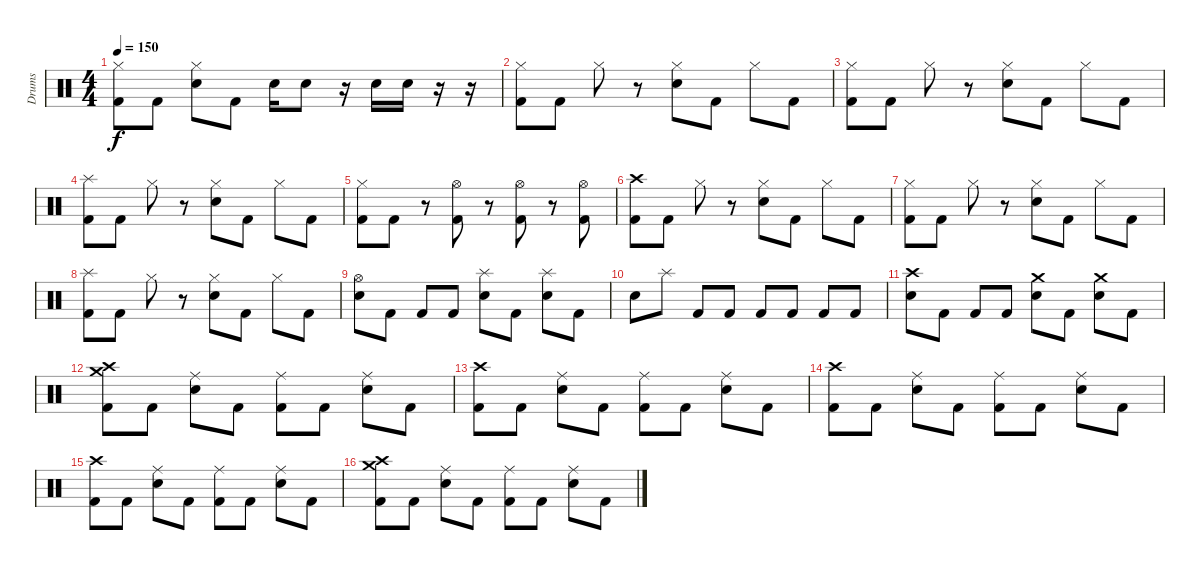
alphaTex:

\track ("Drums" "Drums") {instrument percussion}
\staff {score}
\articulation defaults
\ts (4 4)
\tempo 150
\clef neutral
\ks c
("Hi-Hat (closed)" "Kick (hit) 2").8{dy f} "Kick (hit) 2".8 ("Hi-Hat (closed)" "Snare (hit) 2").8 "Kick (hit) 2".8 "Snare (hit) 2".16 "Snare (hit) 2".8 r.16 "Snare (hit) 2".16 "Snare (hit) 2".16 r.16 r.16 |
("Hi-Hat (closed)" "Kick (hit) 2").8 "Kick (hit) 2".8 "Hi-Hat (closed)".8 r.8 ("Hi-Hat (closed)" "Snare (hit) 2").8 "Kick (hit) 2".8 "Hi-Hat (closed)".8 "Kick (hit) 2".8 |
("Hi-Hat (closed)" "Kick (hit) 2").8 "Kick (hit) 2".8 "Hi-Hat (closed)".8 r.8 ("Hi-Hat (closed)" "Snare (hit) 2").8 "Kick (hit) 2".8 "Hi-Hat (closed)".8 "Kick (hit) 2".8 |
("Splash (hit)" "Kick (hit) 2").8 "Kick (hit) 2".8 "Hi-Hat (closed)".8 r.8 ("Hi-Hat (closed)" "Snare (hit) 2").8 "Kick (hit) 2".8 "Hi-Hat (closed)".8 "Kick (hit) 2".8 |
("Hi-Hat (closed)" "Kick (hit) 2").8 "Kick (hit) 2".8 r.8 ("Hi-Hat (open)" "Kick (hit) 2").8 r.8 ("Hi-Hat (open)" "Kick (hit) 2").8 r.8 ("Hi-Hat (open)" "Kick (hit) 2").8 |
("Crash high (hit)" "Kick (hit) 2").8 "Kick (hit) 2".8 "Hi-Hat (closed)".8 r.8 ("Hi-Hat (closed)" "Snare (hit) 2").8 "Kick (hit) 2".8 "Hi-Hat (closed)".8 "Kick (hit) 2".8 |
("Hi-Hat (closed)" "Kick (hit) 2").8 "Kick (hit) 2".8 "Hi-Hat (closed)".8 r.8 ("Hi-Hat (closed)" "Snare (hit) 2").8 "Kick (hit) 2".8 "Hi-Hat (closed)".8 "Kick (hit) 2".8 |
("Splash (hit)" "Kick (hit) 2").8 "Kick (hit) 2".8 "Hi-Hat (closed)".8 r.8 ("Hi-Hat (closed)" "Snare (hit) 2").8 "Kick (hit) 2".8 "Hi-Hat (closed)".8 "Kick (hit) 2".8 |
("Hi-Hat (open)" "Snare (hit) 2").8 "Kick (hit) 2".8 "Kick (hit) 2".8 "Kick (hit) 2".8 ("Splash (hit)" "Snare (hit) 2").8 "Kick (hit) 2".8 ("Splash (hit)" "Snare (hit) 2").8 "Kick (hit) 2".8 |
"Snare (hit) 2".8 "Splash (hit)".8 "Kick (hit) 2".8 "Kick (hit) 2".8 "Kick (hit) 2".8 "Kick (hit) 2".8 "Kick (hit) 2".8 "Kick (hit) 2".8 |
("Crash high (hit)" "Snare (hit) 2").8 "Kick (hit) 2".8 "Kick (hit) 2".8 "Kick (hit) 2".8 ("Crash medium (hit)" "Snare (hit) 2").8 "Kick (hit) 2".8 ("Crash medium (hit)" "Snare (hit) 2").8 "Kick (hit) 2".8 |
("Crash high (hit)" "Crash medium (hit)" "Kick (hit) 2").8 "Kick (hit) 2".8 ("Ride (middle)" "Snare (hit) 2").8 "Kick (hit) 2".8 ("Ride (middle)" "Kick (hit) 2").8 "Kick (hit) 2".8 ("Ride (middle)" "Snare (hit) 2").8 "Kick (hit) 2".8 |
("Crash high (hit)" "Kick (hit) 2").8 "Kick (hit) 2".8 ("Ride (middle)" "Snare (hit) 2").8 "Kick (hit) 2".8 ("Ride (middle)" "Kick (hit) 2").8 "Kick (hit) 2".8 ("Ride (middle)" "Snare (hit) 2").8 "Kick (hit) 2".8 |
("Crash high (hit)" "Kick (hit) 2").8 "Kick (hit) 2".8 ("Ride (middle)" "Snare (hit) 2").8 "Kick (hit) 2".8 ("Ride (middle)" "Kick (hit) 2").8 "Kick (hit) 2".8 ("Ride (middle)" "Snare (hit) 2").8 "Kick (hit) 2".8 |
("Crash high (hit)" "Kick (hit) 2").8 "Kick (hit) 2".8 ("Ride (middle)" "Snare (hit) 2").8 "Kick (hit) 2".8 ("Ride (middle)" "Kick (hit) 2").8 "Kick (hit) 2".8 ("Ride (middle)" "Snare (hit) 2").8 "Kick (hit) 2".8 |
("Crash high (hit)" "Crash medium (hit)" "Kick (hit) 2").8 "Kick (hit) 2".8 ("Ride (middle)" "Snare (hit) 2").8 "Kick (hit) 2".8 ("Ride (middle)" "Kick (hit) 2").8 "Kick (hit) 2".8 ("Ride (middle)" "Snare (hit) 2").8 "Kick (hit) 2".8
